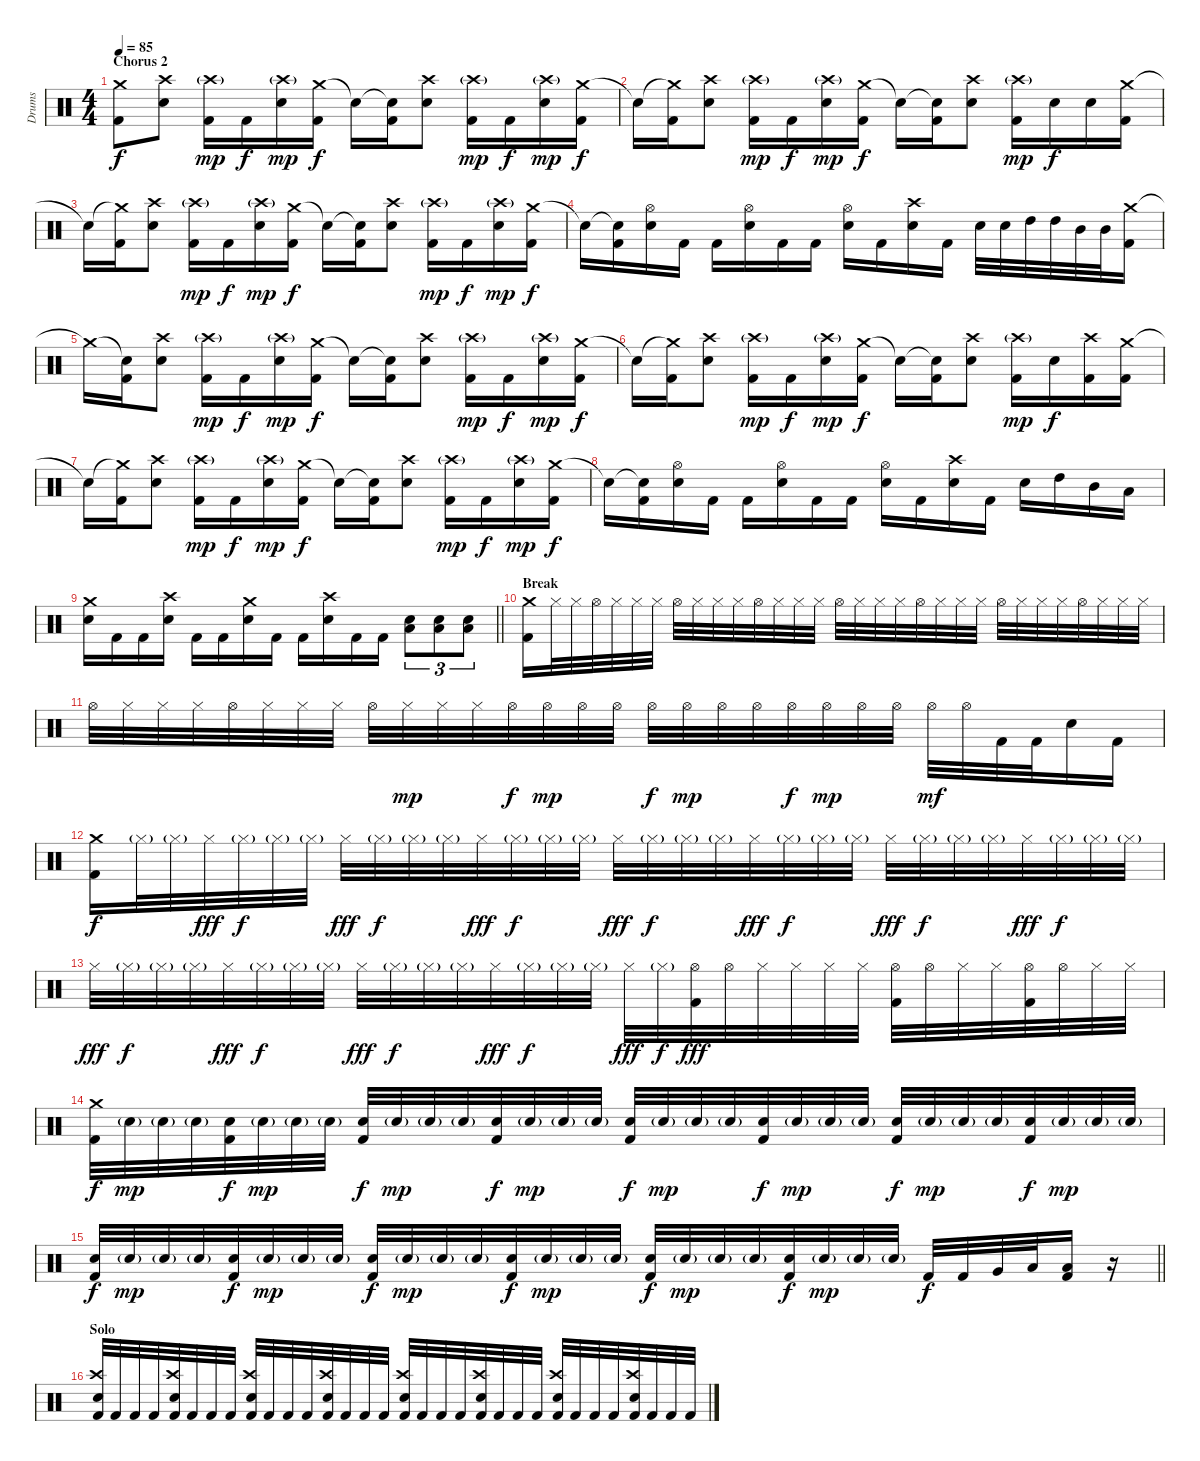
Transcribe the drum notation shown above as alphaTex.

\track ("Drums" "Drums") {instrument percussion}
\staff {score}
\articulation defaults
\ts (4 4)
\section ("" "Chorus 2")
\tempo 85
\clef neutral
\ks c
("Crash medium (hit)" "Kick (hit) 2").8{dy f} ("Crash high (hit)" "Electric Snare (hit)").8 ("Crash high (hit)"{g} "Kick (hit) 2").16{dy mp} "Kick (hit) 2".16{dy f} ("Crash high (hit)"{g} "Electric Snare (hit)").16{dy mp} ("Crash medium (hit)" "Kick (hit) 2").16{dy f} "Snare (hit)"{t}.16 ("Snare (hit)"{t} "Kick (hit) 2").16 ("Crash high (hit)" "Electric Snare (hit)").8 ("Crash high (hit)"{g} "Kick (hit) 2").16{dy mp} "Kick (hit) 2".16{dy f} ("Crash high (hit)"{g} "Electric Snare (hit)").16{dy mp} ("Crash medium (hit)" "Kick (hit) 2").16{dy f} |
"Snare (hit)"{t}.16 ("Crash medium (hit)"{t} "Kick (hit) 2").16 ("Crash high (hit)" "Electric Snare (hit)").8 ("Crash high (hit)"{g} "Kick (hit) 2").16{dy mp} "Kick (hit) 2".16{dy f} ("Crash high (hit)"{g} "Electric Snare (hit)").16{dy mp} ("Crash medium (hit)" "Kick (hit) 2").16{dy f} "Snare (hit)"{t}.16 ("Snare (hit)"{t} "Kick (hit) 2").16 ("Crash high (hit)" "Electric Snare (hit)").8 ("Crash high (hit)"{g} "Kick (hit) 2").16{dy mp} "Electric Snare (hit)".16{dy f} "Electric Snare (hit)".16 ("Crash medium (hit)" "Kick (hit) 2").16 |
"Snare (hit)"{t}.16 ("Crash medium (hit)"{t} "Kick (hit) 2").16 ("Crash high (hit)" "Electric Snare (hit)").8 ("Crash high (hit)"{g} "Kick (hit) 2").16{dy mp} "Kick (hit) 2".16{dy f} ("Crash high (hit)"{g} "Electric Snare (hit)").16{dy mp} ("Crash medium (hit)" "Kick (hit) 2").16{dy f} "Snare (hit)"{t}.16 ("Snare (hit)"{t} "Kick (hit) 2").16 ("Crash high (hit)" "Electric Snare (hit)").8 ("Crash high (hit)"{g} "Kick (hit) 2").16{dy mp} "Kick (hit) 2".16{dy f} ("Crash high (hit)"{g} "Electric Snare (hit)").16{dy mp} ("Crash medium (hit)" "Kick (hit) 2").16{dy f} |
"Snare (hit)"{t}.16 ("Snare (hit)"{t} "Kick (hit) 2").16 ("Hi-Hat (open)" "Electric Snare (hit)").16 "Kick (hit) 2".16 "Kick (hit) 2".16 ("Hi-Hat (open)" "Electric Snare (hit)").16 "Kick (hit) 2".16 "Kick (hit) 2".16 ("Hi-Hat (open)" "Electric Snare (hit)").16 "Kick (hit) 2".16 ("Crash high (hit)" "Electric Snare (hit)").16 "Kick (hit) 2".16 "Electric Snare (hit)".32 "Electric Snare (hit)".32 "High Tom (hit)".32 "High Tom (hit)".32 "Mid Tom (hit)".32 "Mid Tom (hit)".32 ("Crash medium (hit)" "Kick (hit) 2").16 |
"Crash medium (hit)"{t}.16 ("Snare (hit)"{t} "Kick (hit) 2").16 ("Crash high (hit)" "Electric Snare (hit)").8 ("Crash high (hit)"{g} "Kick (hit) 2").16{dy mp} "Kick (hit) 2".16{dy f} ("Crash high (hit)"{g} "Electric Snare (hit)").16{dy mp} ("Crash medium (hit)" "Kick (hit) 2").16{dy f} "Snare (hit)"{t}.16 ("Snare (hit)"{t} "Kick (hit) 2").16 ("Crash high (hit)" "Electric Snare (hit)").8 ("Crash high (hit)"{g} "Kick (hit) 2").16{dy mp} "Kick (hit) 2".16{dy f} ("Crash high (hit)"{g} "Electric Snare (hit)").16{dy mp} ("Crash medium (hit)" "Kick (hit) 2").16{dy f} |
"Snare (hit)"{t}.16 ("Crash medium (hit)"{t} "Kick (hit) 2").16 ("Crash high (hit)" "Electric Snare (hit)").8 ("Crash high (hit)"{g} "Kick (hit) 2").16{dy mp} "Kick (hit) 2".16{dy f} ("Crash high (hit)"{g} "Electric Snare (hit)").16{dy mp} ("Crash medium (hit)" "Kick (hit) 2").16{dy f} "Snare (hit)"{t}.16 ("Snare (hit)"{t} "Kick (hit) 2").16 ("Crash high (hit)" "Electric Snare (hit)").8 ("Crash high (hit)"{g} "Kick (hit) 2").16{dy mp} "Electric Snare (hit)".16{dy f} ("Crash high (hit)" "Kick (hit) 2").16 ("Crash medium (hit)" "Kick (hit) 2").16 |
"Snare (hit)"{t}.16 ("Crash medium (hit)"{t} "Kick (hit) 2").16 ("Crash high (hit)" "Electric Snare (hit)").8 ("Crash high (hit)"{g} "Kick (hit) 2").16{dy mp} "Kick (hit) 2".16{dy f} ("Crash high (hit)"{g} "Electric Snare (hit)").16{dy mp} ("Crash medium (hit)" "Kick (hit) 2").16{dy f} "Snare (hit)"{t}.16 ("Snare (hit)"{t} "Kick (hit) 2").16 ("Crash high (hit)" "Electric Snare (hit)").8 ("Crash high (hit)"{g} "Kick (hit) 2").16{dy mp} "Kick (hit) 2".16{dy f} ("Crash high (hit)"{g} "Electric Snare (hit)").16{dy mp} ("Crash medium (hit)" "Kick (hit) 2").16{dy f} |
"Snare (hit)"{t}.16 ("Snare (hit)"{t} "Kick (hit) 2").16 ("Hi-Hat (open)" "Electric Snare (hit)").16 "Kick (hit) 2".16 "Kick (hit) 2".16 ("Hi-Hat (open)" "Electric Snare (hit)").16 "Kick (hit) 2".16 "Kick (hit) 2".16 ("Hi-Hat (open)" "Electric Snare (hit)").16 "Kick (hit) 2".16 ("Crash high (hit)" "Electric Snare (hit)").16 "Kick (hit) 2".16 "Electric Snare (hit)".16 "High Tom (hit)".16 "Mid Tom (hit)".16 "Low Tom (hit)".16 |
\barLineRight lightlight
("Crash medium (hit)" "Electric Snare (hit)").16 "Kick (hit) 2".16 "Kick (hit) 2".16 ("Crash high (hit)" "Electric Snare (hit)").16 "Kick (hit) 2".16 "Kick (hit) 2".16 ("Crash medium (hit)" "Electric Snare (hit)").16 "Kick (hit) 2".16 "Kick (hit) 2".16 ("Crash high (hit)" "Electric Snare (hit)").16 "Kick (hit) 2".16 "Kick (hit) 2".16 ("Low Floor Tom (hit)" "Electric Snare (hit)").8{tu (3 2)} ("Low Floor Tom (hit)" "Electric Snare (hit)").8{tu (3 2)} ("Low Floor Tom (hit)" "Electric Snare (hit)").8{tu (3 2)} |
\section ("" "Break")
("Crash medium (hit)" "Kick (hit) 2").16 "Hi-Hat (closed)".32 "Hi-Hat (closed)".32 "Hi-Hat (open)".32 "Hi-Hat (closed)".32 "Hi-Hat (closed)".32 "Hi-Hat (closed)".32 "Hi-Hat (open)".32 "Hi-Hat (closed)".32 "Hi-Hat (closed)".32 "Hi-Hat (closed)".32 "Hi-Hat (open)".32 "Hi-Hat (closed)".32 "Hi-Hat (closed)".32 "Hi-Hat (closed)".32 "Hi-Hat (open)".32 "Hi-Hat (closed)".32 "Hi-Hat (closed)".32 "Hi-Hat (closed)".32 "Hi-Hat (open)".32 "Hi-Hat (closed)".32 "Hi-Hat (closed)".32 "Hi-Hat (closed)".32 "Hi-Hat (open)".32 "Hi-Hat (closed)".32 "Hi-Hat (closed)".32 "Hi-Hat (closed)".32 "Hi-Hat (open)".32 "Hi-Hat (closed)".32 "Hi-Hat (closed)".32 "Hi-Hat (closed)".32 |
"Hi-Hat (open)".32 "Hi-Hat (closed)".32 "Hi-Hat (closed)".32 "Hi-Hat (closed)".32 "Hi-Hat (open)".32 "Hi-Hat (closed)".32 "Hi-Hat (closed)".32 "Hi-Hat (closed)".32 "Hi-Hat (open)".32 "Hi-Hat (closed)".32{dy mp} "Hi-Hat (closed)".32 "Hi-Hat (closed)".32 "Hi-Hat (open)".32{dy f} "Hi-Hat (open)".32{dy mp} "Hi-Hat (open)".32 "Hi-Hat (open)".32 "Hi-Hat (open)".32{dy f} "Hi-Hat (open)".32{dy mp} "Hi-Hat (open)".32 "Hi-Hat (open)".32 "Hi-Hat (open)".32{dy f} "Hi-Hat (open)".32{dy mp} "Hi-Hat (open)".32 "Hi-Hat (open)".32 "Hi-Hat (open)".32{dy mf} "Hi-Hat (open)".32 "Kick (hit) 2".32 "Kick (hit) 2".32 "Electric Snare (hit)".16 "Kick (hit) 2".16 |
("Crash medium (hit)" "Kick (hit) 2").16{dy f} "Hi-Hat (closed)"{g}.32 "Hi-Hat (closed)"{g}.32 "Hi-Hat (closed)".32{dy fff} "Hi-Hat (closed)"{g}.32{dy f} "Hi-Hat (closed)"{g}.32 "Hi-Hat (closed)"{g}.32 "Hi-Hat (closed)".32{dy fff} "Hi-Hat (closed)"{g}.32{dy f} "Hi-Hat (closed)"{g}.32 "Hi-Hat (closed)"{g}.32 "Hi-Hat (closed)".32{dy fff} "Hi-Hat (closed)"{g}.32{dy f} "Hi-Hat (closed)"{g}.32 "Hi-Hat (closed)"{g}.32 "Hi-Hat (closed)".32{dy fff} "Hi-Hat (closed)"{g}.32{dy f} "Hi-Hat (closed)"{g}.32 "Hi-Hat (closed)"{g}.32 "Hi-Hat (closed)".32{dy fff} "Hi-Hat (closed)"{g}.32{dy f} "Hi-Hat (closed)"{g}.32 "Hi-Hat (closed)"{g}.32 "Hi-Hat (closed)".32{dy fff} "Hi-Hat (closed)"{g}.32{dy f} "Hi-Hat (closed)"{g}.32 "Hi-Hat (closed)"{g}.32 "Hi-Hat (closed)".32{dy fff} "Hi-Hat (closed)"{g}.32{dy f} "Hi-Hat (closed)"{g}.32 "Hi-Hat (closed)"{g}.32 |
"Hi-Hat (closed)".32{dy fff} "Hi-Hat (closed)"{g}.32{dy f} "Hi-Hat (closed)"{g}.32 "Hi-Hat (closed)"{g}.32 "Hi-Hat (closed)".32{dy fff} "Hi-Hat (closed)"{g}.32{dy f} "Hi-Hat (closed)"{g}.32 "Hi-Hat (closed)"{g}.32 "Hi-Hat (closed)".32{dy fff} "Hi-Hat (closed)"{g}.32{dy f} "Hi-Hat (closed)"{g}.32 "Hi-Hat (closed)"{g}.32 "Hi-Hat (closed)".32{dy fff} "Hi-Hat (closed)"{g}.32{dy f} "Hi-Hat (closed)"{g}.32 "Hi-Hat (closed)"{g}.32 "Hi-Hat (closed)".32{dy fff} "Hi-Hat (closed)"{g}.32{dy f} ("Hi-Hat (open)" "Kick (hit) 2").32{dy fff} "Hi-Hat (open)".32 "Hi-Hat (closed)".32 "Hi-Hat (closed)".32 "Hi-Hat (closed)".32 "Hi-Hat (closed)".32 ("Hi-Hat (open)" "Kick (hit) 2").32 "Hi-Hat (open)".32 "Hi-Hat (closed)".32 "Hi-Hat (closed)".32 ("Hi-Hat (open)" "Kick (hit) 2").32 "Hi-Hat (open)".32 "Hi-Hat (closed)".32 "Hi-Hat (closed)".32 |
("Crash medium (hit)" "Kick (hit) 2").32{dy f} "Electric Snare (hit)"{g}.32{dy mp} "Electric Snare (hit)"{g}.32 "Electric Snare (hit)"{g}.32 ("Electric Snare (hit)" "Kick (hit) 2").32{dy f} "Electric Snare (hit)"{g}.32{dy mp} "Electric Snare (hit)"{g}.32 "Electric Snare (hit)"{g}.32 ("Electric Snare (hit)" "Kick (hit) 2").32{dy f} "Electric Snare (hit)"{g}.32{dy mp} "Electric Snare (hit)"{g}.32 "Electric Snare (hit)"{g}.32 ("Electric Snare (hit)" "Kick (hit) 2").32{dy f} "Electric Snare (hit)"{g}.32{dy mp} "Electric Snare (hit)"{g}.32 "Electric Snare (hit)"{g}.32 ("Electric Snare (hit)" "Kick (hit) 2").32{dy f} "Electric Snare (hit)"{g}.32{dy mp} "Electric Snare (hit)"{g}.32 "Electric Snare (hit)"{g}.32 ("Electric Snare (hit)" "Kick (hit) 2").32{dy f} "Electric Snare (hit)"{g}.32{dy mp} "Electric Snare (hit)"{g}.32 "Electric Snare (hit)"{g}.32 ("Electric Snare (hit)" "Kick (hit) 2").32{dy f} "Electric Snare (hit)"{g}.32{dy mp} "Electric Snare (hit)"{g}.32 "Electric Snare (hit)"{g}.32 ("Electric Snare (hit)" "Kick (hit) 2").32{dy f} "Electric Snare (hit)"{g}.32{dy mp} "Electric Snare (hit)"{g}.32 "Electric Snare (hit)"{g}.32 |
\barLineRight lightlight
("Electric Snare (hit)" "Kick (hit) 2").32{dy f} "Electric Snare (hit)"{g}.32{dy mp} "Electric Snare (hit)"{g}.32 "Electric Snare (hit)"{g}.32 ("Electric Snare (hit)" "Kick (hit) 2").32{dy f} "Electric Snare (hit)"{g}.32{dy mp} "Electric Snare (hit)"{g}.32 "Electric Snare (hit)"{g}.32 ("Electric Snare (hit)" "Kick (hit) 2").32{dy f} "Electric Snare (hit)"{g}.32{dy mp} "Electric Snare (hit)"{g}.32 "Electric Snare (hit)"{g}.32 ("Electric Snare (hit)" "Kick (hit) 2").32{dy f} "Electric Snare (hit)"{g}.32{dy mp} "Electric Snare (hit)"{g}.32 "Electric Snare (hit)"{g}.32 ("Electric Snare (hit)" "Kick (hit) 2").32{dy f} "Electric Snare (hit)"{g}.32{dy mp} "Electric Snare (hit)"{g}.32 "Electric Snare (hit)"{g}.32 ("Electric Snare (hit)" "Kick (hit) 2").32{dy f} "Electric Snare (hit)"{g}.32{dy mp} "Electric Snare (hit)"{g}.32 "Electric Snare (hit)"{g}.32 "Kick (hit) 2".32{dy f} "Kick (hit) 2".32 "Very Low Tom (hit)".32 "Low Floor Tom (hit)".32 ("Low Floor Tom (hit)" "Kick (hit) 2").16 r.16 |
\section ("" "Solo")
("Crash high (hit)" "Electric Snare (hit)" "Kick (hit) 2").32 "Kick (hit) 2".32 "Kick (hit) 2".32 "Kick (hit) 2".32 ("Crash high (hit)" "Electric Snare (hit)" "Kick (hit) 2").32 "Kick (hit) 2".32 "Kick (hit) 2".32 "Kick (hit) 2".32 ("Crash high (hit)" "Electric Snare (hit)" "Kick (hit) 2").32 "Kick (hit) 2".32 "Kick (hit) 2".32 "Kick (hit) 2".32 ("Crash high (hit)" "Electric Snare (hit)" "Kick (hit) 2").32 "Kick (hit) 2".32 "Kick (hit) 2".32 "Kick (hit) 2".32 ("Crash high (hit)" "Electric Snare (hit)" "Kick (hit) 2").32 "Kick (hit) 2".32 "Kick (hit) 2".32 "Kick (hit) 2".32 ("Crash high (hit)" "Electric Snare (hit)" "Kick (hit) 2").32 "Kick (hit) 2".32 "Kick (hit) 2".32 "Kick (hit) 2".32 ("Crash high (hit)" "Electric Snare (hit)" "Kick (hit) 2").32 "Kick (hit) 2".32 "Kick (hit) 2".32 "Kick (hit) 2".32 ("Crash high (hit)" "Electric Snare (hit)" "Kick (hit) 2").32 "Kick (hit) 2".32 "Kick (hit) 2".32 "Kick (hit) 2".32
